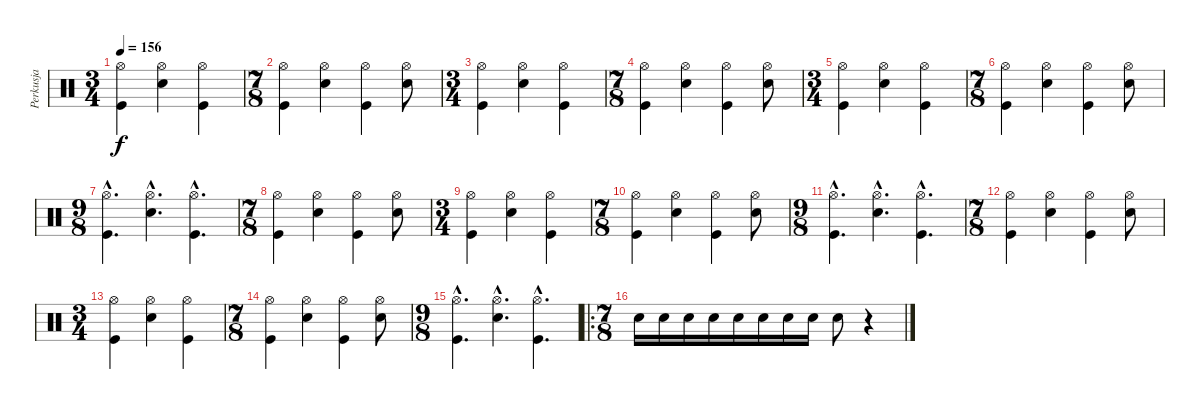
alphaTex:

\track ("Perkusja" "Perkusja") {instrument percussion}
\staff {score}
\articulation defaults
\ts (3 4)
\tempo 156
\clef neutral
\ks c
("Hi-Hat (open)" "Kick (hit)").4{dy f} ("Hi-Hat (open)" "Snare (hit) 2").4 ("Hi-Hat (open)" "Kick (hit)").4 |
\ts (7 8)
("Hi-Hat (open)" "Kick (hit)").4 ("Hi-Hat (open)" "Snare (hit) 2").4 ("Hi-Hat (open)" "Kick (hit)").4 ("Hi-Hat (open)" "Snare (hit) 2").8 |
\ts (3 4)
("Hi-Hat (open)" "Kick (hit)").4 ("Hi-Hat (open)" "Snare (hit) 2").4 ("Hi-Hat (open)" "Kick (hit)").4 |
\ts (7 8)
("Hi-Hat (open)" "Kick (hit)").4 ("Hi-Hat (open)" "Snare (hit) 2").4 ("Hi-Hat (open)" "Kick (hit)").4 ("Hi-Hat (open)" "Snare (hit) 2").8 |
\ts (3 4)
("Hi-Hat (open)" "Kick (hit)").4 ("Hi-Hat (open)" "Snare (hit) 2").4 ("Hi-Hat (open)" "Kick (hit)").4 |
\ts (7 8)
("Hi-Hat (open)" "Kick (hit)").4 ("Hi-Hat (open)" "Snare (hit) 2").4 ("Hi-Hat (open)" "Kick (hit)").4 ("Hi-Hat (open)" "Snare (hit) 2").8 |
\ts (9 8)
("Hi-Hat (open)"{hac} "Kick (hit)"{hac}).4{d} ("Hi-Hat (open)"{hac} "Snare (hit) 2"{hac}).4{d} ("Hi-Hat (open)"{hac} "Kick (hit)"{hac}).4{d} |
\ts (7 8)
("Hi-Hat (open)" "Kick (hit)").4 ("Hi-Hat (open)" "Snare (hit) 2").4 ("Hi-Hat (open)" "Kick (hit)").4 ("Hi-Hat (open)" "Snare (hit) 2").8 |
\ts (3 4)
("Hi-Hat (open)" "Kick (hit)").4 ("Hi-Hat (open)" "Snare (hit) 2").4 ("Hi-Hat (open)" "Kick (hit)").4 |
\ts (7 8)
("Hi-Hat (open)" "Kick (hit)").4 ("Hi-Hat (open)" "Snare (hit) 2").4 ("Hi-Hat (open)" "Kick (hit)").4 ("Hi-Hat (open)" "Snare (hit) 2").8 |
\ts (9 8)
("Hi-Hat (open)"{hac} "Kick (hit)"{hac}).4{d} ("Hi-Hat (open)"{hac} "Snare (hit) 2"{hac}).4{d} ("Hi-Hat (open)"{hac} "Kick (hit)"{hac}).4{d} |
\ts (7 8)
("Hi-Hat (open)" "Kick (hit)").4 ("Hi-Hat (open)" "Snare (hit) 2").4 ("Hi-Hat (open)" "Kick (hit)").4 ("Hi-Hat (open)" "Snare (hit) 2").8 |
\ts (3 4)
("Hi-Hat (open)" "Kick (hit)").4 ("Hi-Hat (open)" "Snare (hit) 2").4 ("Hi-Hat (open)" "Kick (hit)").4 |
\ts (7 8)
("Hi-Hat (open)" "Kick (hit)").4 ("Hi-Hat (open)" "Snare (hit) 2").4 ("Hi-Hat (open)" "Kick (hit)").4 ("Hi-Hat (open)" "Snare (hit) 2").8 |
\ts (9 8)
("Hi-Hat (open)"{hac} "Kick (hit)"{hac}).4{d} ("Hi-Hat (open)"{hac} "Snare (hit) 2"{hac}).4{d} ("Hi-Hat (open)"{hac} "Kick (hit)"{hac}).4{d} |
\ro
\ts (7 8)
"Snare (hit) 2".16 "Snare (hit) 2".16 "Snare (hit) 2".16 "Snare (hit) 2".16 "Snare (hit) 2".16 "Snare (hit) 2".16 "Snare (hit) 2".16 "Snare (hit) 2".16 "Snare (hit) 2".8 r.4
